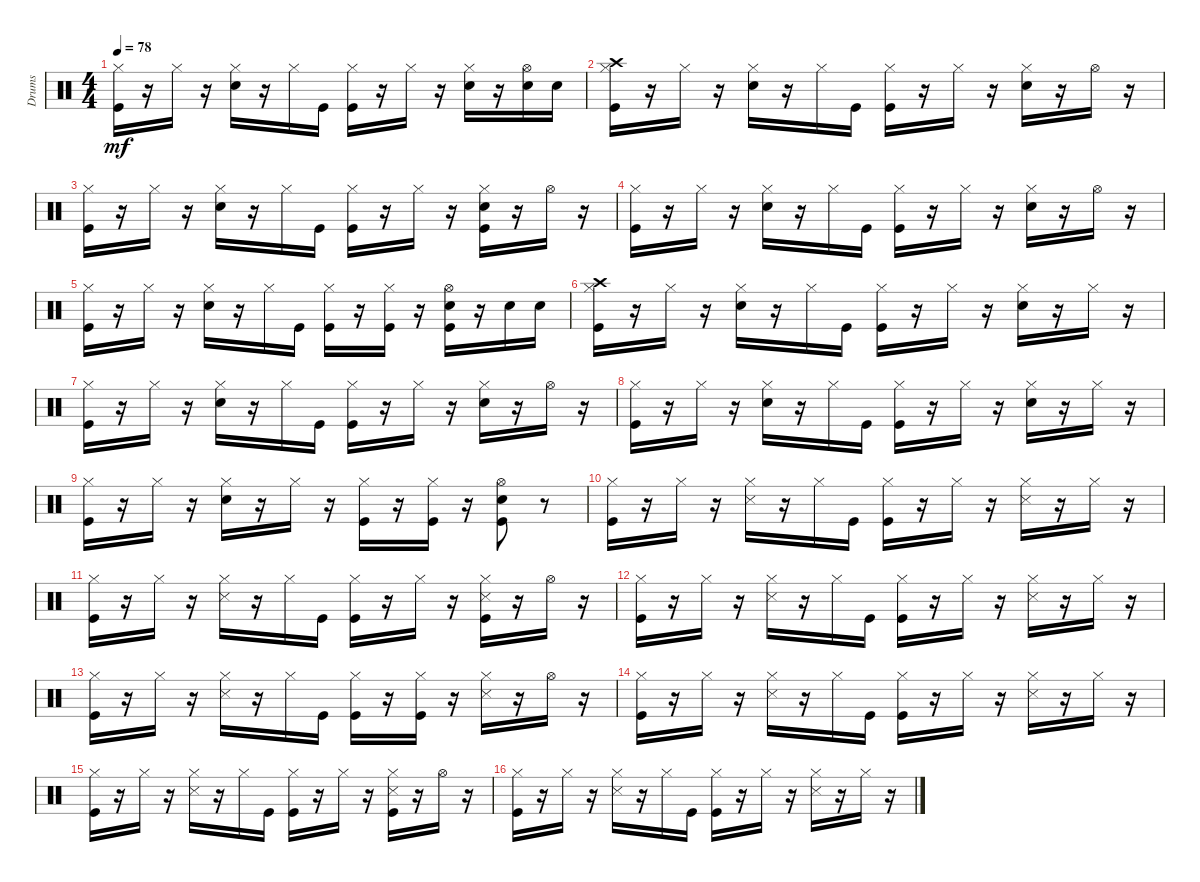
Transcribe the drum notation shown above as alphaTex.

\track ("Drums               " "Drums     ") {instrument percussion}
\staff {score}
\articulation defaults
\ts (4 4)
\tempo 78
\clef neutral
\ks c
("Kick (hit)" "Hi-Hat (closed)").16{dy mf} r.16 "Hi-Hat (closed)".16 r.16 ("Snare (hit) 2" "Hi-Hat (closed)").16 r.16 "Hi-Hat (closed)".16 "Kick (hit)".16 ("Kick (hit)" "Hi-Hat (closed)").16 r.16 "Hi-Hat (closed)".16 r.16 ("Snare (hit) 2" "Hi-Hat (closed)").16 r.16 ("Snare (hit) 2" "Hi-Hat (open)").16 "Snare (hit) 2".16 |
("Kick (hit)" "Hi-Hat (closed)" "Crash high (hit)").16 r.16 "Hi-Hat (closed)".16 r.16 ("Snare (hit) 2" "Hi-Hat (closed)").16 r.16 "Hi-Hat (closed)".16 "Kick (hit)".16 ("Kick (hit)" "Hi-Hat (closed)").16 r.16 "Hi-Hat (closed)".16 r.16 ("Snare (hit) 2" "Hi-Hat (closed)").16 r.16 "Hi-Hat (open)".16 r.16 |
("Kick (hit)" "Hi-Hat (closed)").16 r.16 "Hi-Hat (closed)".16 r.16 ("Snare (hit) 2" "Hi-Hat (closed)").16 r.16 "Hi-Hat (closed)".16 "Kick (hit)".16 ("Kick (hit)" "Hi-Hat (closed)").16 r.16 "Hi-Hat (closed)".16 r.16 ("Kick (hit)" "Snare (hit) 2" "Hi-Hat (closed)").16 r.16 "Hi-Hat (open)".16 r.16 |
("Kick (hit)" "Hi-Hat (closed)").16 r.16 "Hi-Hat (closed)".16 r.16 ("Snare (hit) 2" "Hi-Hat (closed)").16 r.16 "Hi-Hat (closed)".16 "Kick (hit)".16 ("Kick (hit)" "Hi-Hat (closed)").16 r.16 "Hi-Hat (closed)".16 r.16 ("Snare (hit) 2" "Hi-Hat (closed)").16 r.16 "Hi-Hat (open)".16 r.16 |
("Kick (hit)" "Hi-Hat (closed)").16 r.16 "Hi-Hat (closed)".16 r.16 ("Snare (hit) 2" "Hi-Hat (closed)").16 r.16 "Hi-Hat (closed)".16 "Kick (hit)".16 ("Kick (hit)" "Hi-Hat (closed)").16 r.16 ("Kick (hit)" "Hi-Hat (closed)").16 r.16 ("Kick (hit)" "Snare (hit) 2" "Hi-Hat (open)").16 r.16 "Snare (hit) 2".16 "Snare (hit) 2".16 |
("Kick (hit)" "Hi-Hat (closed)" "Crash high (hit)").16 r.16 "Hi-Hat (closed)".16 r.16 ("Snare (hit) 2" "Hi-Hat (closed)").16 r.16 "Hi-Hat (closed)".16 "Kick (hit)".16 ("Kick (hit)" "Hi-Hat (closed)").16 r.16 "Hi-Hat (closed)".16 r.16 ("Snare (hit) 2" "Hi-Hat (closed)").16 r.16 "Hi-Hat (closed)".16 r.16 |
("Kick (hit)" "Hi-Hat (closed)").16 r.16 "Hi-Hat (closed)".16 r.16 ("Snare (hit) 2" "Hi-Hat (closed)").16 r.16 "Hi-Hat (closed)".16 "Kick (hit)".16 ("Kick (hit)" "Hi-Hat (closed)").16 r.16 "Hi-Hat (closed)".16 r.16 ("Snare (hit) 2" "Hi-Hat (closed)").16 r.16 "Hi-Hat (open)".16 r.16 |
("Kick (hit)" "Hi-Hat (closed)").16 r.16 "Hi-Hat (closed)".16 r.16 ("Snare (hit) 2" "Hi-Hat (closed)").16 r.16 "Hi-Hat (closed)".16 "Kick (hit)".16 ("Kick (hit)" "Hi-Hat (closed)").16 r.16 "Hi-Hat (closed)".16 r.16 ("Snare (hit) 2" "Hi-Hat (closed)").16 r.16 "Hi-Hat (closed)".16 r.16 |
("Kick (hit)" "Hi-Hat (closed)").16 r.16 "Hi-Hat (closed)".16 r.16 ("Snare (hit) 2" "Hi-Hat (closed)").16 r.16 "Hi-Hat (closed)".16 r.16 ("Kick (hit)" "Hi-Hat (closed)").16 r.16 ("Kick (hit)" "Hi-Hat (closed)").16 r.16 ("Kick (hit)" "Snare (hit) 2" "Hi-Hat (open)").8 r.8 |
("Kick (hit)" "Hi-Hat (closed)").16 r.16 "Hi-Hat (closed)".16 r.16 ("Hi-Hat (closed)" "Snare (side stick) 3").16 r.16 "Hi-Hat (closed)".16 "Kick (hit)".16 ("Kick (hit)" "Hi-Hat (closed)").16 r.16 "Hi-Hat (closed)".16 r.16 ("Hi-Hat (closed)" "Snare (side stick) 3").16 r.16 "Hi-Hat (closed)".16 r.16 |
("Kick (hit)" "Hi-Hat (closed)").16 r.16 "Hi-Hat (closed)".16 r.16 ("Hi-Hat (closed)" "Snare (side stick) 3").16 r.16 "Hi-Hat (closed)".16 "Kick (hit)".16 ("Kick (hit)" "Hi-Hat (closed)").16 r.16 "Hi-Hat (closed)".16 r.16 ("Kick (hit)" "Hi-Hat (closed)" "Snare (side stick) 3").16 r.16 "Hi-Hat (open)".16 r.16 |
("Kick (hit)" "Hi-Hat (closed)").16 r.16 "Hi-Hat (closed)".16 r.16 ("Hi-Hat (closed)" "Snare (side stick) 3").16 r.16 "Hi-Hat (closed)".16 "Kick (hit)".16 ("Kick (hit)" "Hi-Hat (closed)").16 r.16 "Hi-Hat (closed)".16 r.16 ("Hi-Hat (closed)" "Snare (side stick) 3").16 r.16 "Hi-Hat (closed)".16 r.16 |
("Kick (hit)" "Hi-Hat (closed)").16 r.16 "Hi-Hat (closed)".16 r.16 ("Hi-Hat (closed)" "Snare (side stick) 3").16 r.16 "Hi-Hat (closed)".16 "Kick (hit)".16 ("Kick (hit)" "Hi-Hat (closed)").16 r.16 ("Kick (hit)" "Hi-Hat (closed)").16 r.16 ("Hi-Hat (closed)" "Snare (side stick) 3").16 r.16 "Hi-Hat (open)".16 r.16 |
("Kick (hit)" "Hi-Hat (closed)").16 r.16 "Hi-Hat (closed)".16 r.16 ("Hi-Hat (closed)" "Snare (side stick) 3").16 r.16 "Hi-Hat (closed)".16 "Kick (hit)".16 ("Kick (hit)" "Hi-Hat (closed)").16 r.16 "Hi-Hat (closed)".16 r.16 ("Hi-Hat (closed)" "Snare (side stick) 3").16 r.16 "Hi-Hat (closed)".16 r.16 |
("Kick (hit)" "Hi-Hat (closed)").16 r.16 "Hi-Hat (closed)".16 r.16 ("Hi-Hat (closed)" "Snare (side stick) 3").16 r.16 "Hi-Hat (closed)".16 "Kick (hit)".16 ("Kick (hit)" "Hi-Hat (closed)").16 r.16 "Hi-Hat (closed)".16 r.16 ("Kick (hit)" "Hi-Hat (closed)" "Snare (side stick) 3").16 r.16 "Hi-Hat (open)".16 r.16 |
("Kick (hit)" "Hi-Hat (closed)").16 r.16 "Hi-Hat (closed)".16 r.16 ("Hi-Hat (closed)" "Snare (side stick) 3").16 r.16 "Hi-Hat (closed)".16 "Kick (hit)".16 ("Kick (hit)" "Hi-Hat (closed)").16 r.16 "Hi-Hat (closed)".16 r.16 ("Hi-Hat (closed)" "Snare (side stick) 3").16 r.16 "Hi-Hat (closed)".16 r.16
